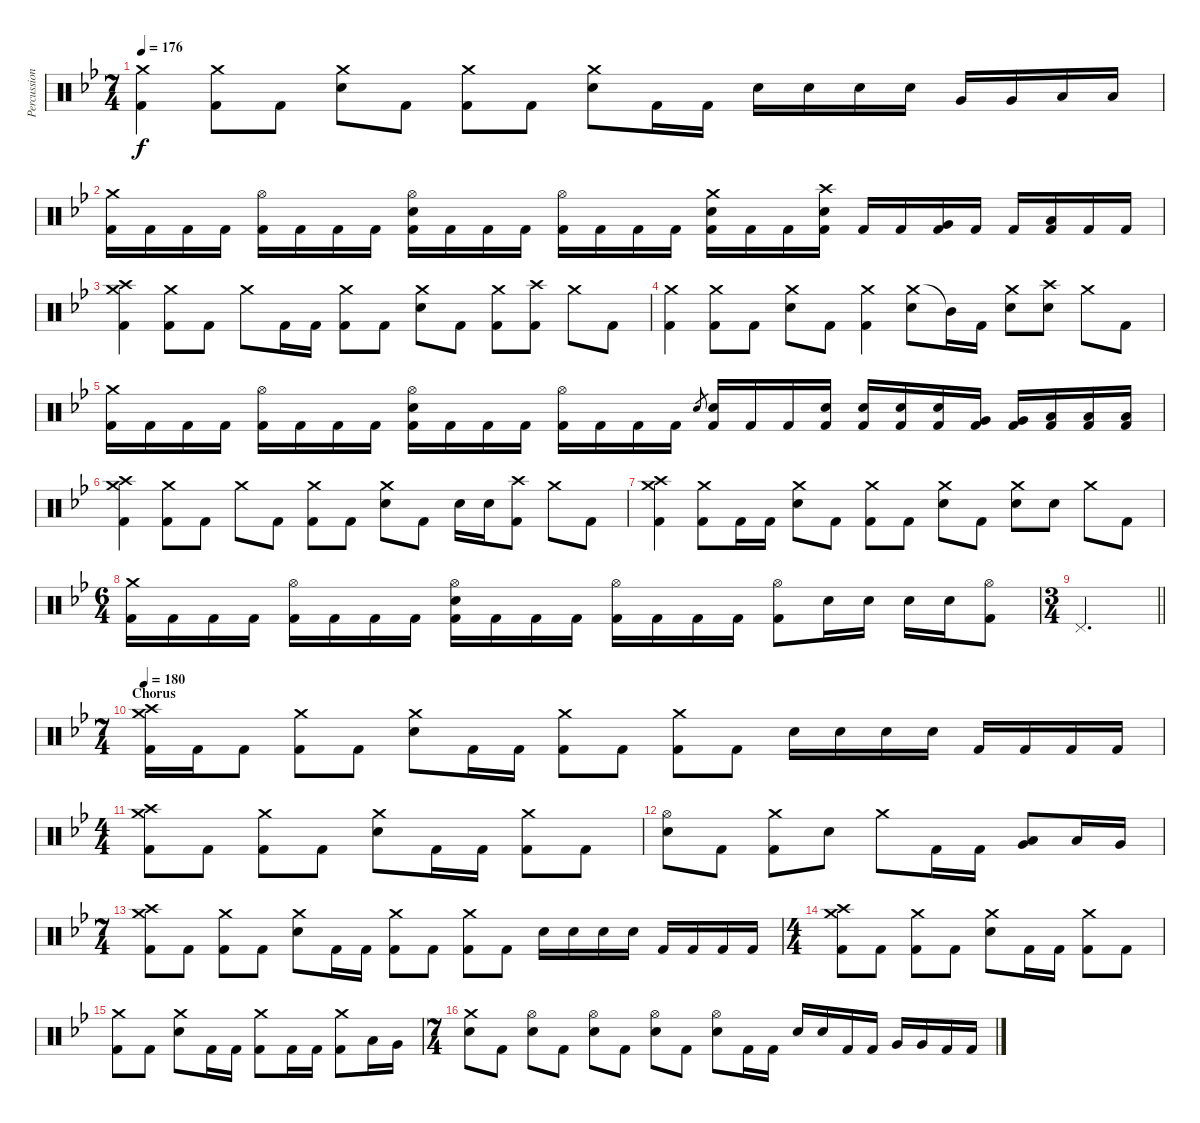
\track ("Percussion" "Percussion") {instrument percussion}
\staff {score}
\articulation defaults
\ts (7 4)
\tempo 176
\clef neutral
\ks bb
("Crash medium (hit)" "Kick (hit) 2").4{dy f} ("Crash medium (hit)" "Kick (hit) 2").8 "Kick (hit) 2".8 ("Crash medium (hit)" "Electric Snare (hit)").8 "Kick (hit) 2".8 ("Crash medium (hit)" "Kick (hit) 2").8 "Kick (hit) 2".8 ("Crash medium (hit)" "Electric Snare (hit)").8 "Kick (hit) 2".16 "Kick (hit) 2".16 "Electric Snare (hit)".16 "Electric Snare (hit)".16 "Electric Snare (hit)".16 "Electric Snare (hit)".16 "Very Low Tom (hit)".16 "Very Low Tom (hit)".16 "Low Floor Tom (hit)".16 "Low Floor Tom (hit)".16 |
("Crash medium (hit)" "Kick (hit) 2").16 "Kick (hit) 2".16 "Kick (hit) 2".16 "Kick (hit) 2".16 ("Hi-Hat (open)" "Kick (hit) 2").16 "Kick (hit) 2".16 "Kick (hit) 2".16 "Kick (hit) 2".16 ("Hi-Hat (open)" "Electric Snare (hit)" "Kick (hit) 2").16 "Kick (hit) 2".16 "Kick (hit) 2".16 "Kick (hit) 2".16 ("Hi-Hat (open)" "Kick (hit) 2").16 "Kick (hit) 2".16 "Kick (hit) 2".16 "Kick (hit) 2".16 ("Crash medium (hit)" "Electric Snare (hit)" "Kick (hit) 2").16 "Kick (hit) 2".16 "Kick (hit) 2".16 ("Crash high (hit)" "Electric Snare (hit)" "Kick (hit) 2").16 "Kick (hit) 2".16 "Kick (hit) 2".16 ("Very Low Tom (hit)" "Kick (hit) 2").16 "Kick (hit) 2".16 "Kick (hit) 2".16 ("Low Floor Tom (hit)" "Kick (hit) 2").16 "Kick (hit) 2".16 "Kick (hit) 2".16 |
("Crash medium (hit)" "Crash high (hit)" "Kick (hit) 2").4 ("Crash medium (hit)" "Kick (hit) 2").8 "Kick (hit) 2".8 "Crash medium (hit)".8 "Kick (hit) 2".16 "Kick (hit) 2".16 ("Crash medium (hit)" "Kick (hit) 2").8 "Kick (hit) 2".8 ("Crash medium (hit)" "Electric Snare (hit)").8 "Kick (hit) 2".8 ("Crash medium (hit)" "Kick (hit) 2").8 ("Crash high (hit)" "Kick (hit) 2").8 "Crash medium (hit)".8 "Kick (hit) 2".8 |
("Crash medium (hit)" "Kick (hit) 2").4 ("Crash medium (hit)" "Kick (hit) 2").8 "Kick (hit) 2".8 ("Crash medium (hit)" "Electric Snare (hit)").8 "Kick (hit) 2".8 ("Crash medium (hit)" "Kick (hit) 2").4 ("Crash medium (hit)" "Electric Snare (hit)").8 "Mid Tom (hit)"{t}.16 "Kick (hit) 2".16 ("Crash medium (hit)" "Electric Snare (hit)").8 ("Crash high (hit)" "Electric Snare (hit)").8 "Crash medium (hit)".8 "Kick (hit) 2".8 |
("Crash medium (hit)" "Kick (hit) 2").16 "Kick (hit) 2".16 "Kick (hit) 2".16 "Kick (hit) 2".16 ("Hi-Hat (open)" "Kick (hit) 2").16 "Kick (hit) 2".16 "Kick (hit) 2".16 "Kick (hit) 2".16 ("Hi-Hat (open)" "Electric Snare (hit)" "Kick (hit) 2").16 "Kick (hit) 2".16 "Kick (hit) 2".16 "Kick (hit) 2".16 ("Hi-Hat (open)" "Kick (hit) 2").16 "Kick (hit) 2".16 "Kick (hit) 2".16 "Kick (hit) 2".16 "Electric Snare (hit)".8{gr} ("Electric Snare (hit)" "Kick (hit) 2").16 "Kick (hit) 2".16 "Kick (hit) 2".16 ("Electric Snare (hit)" "Kick (hit) 2").16 ("Electric Snare (hit)" "Kick (hit) 2").16 ("Electric Snare (hit)" "Kick (hit) 2").16 ("Electric Snare (hit)" "Kick (hit) 2").16 ("Very Low Tom (hit)" "Kick (hit) 2").16 ("Very Low Tom (hit)" "Kick (hit) 2").16 ("Low Floor Tom (hit)" "Kick (hit) 2").16 ("Low Floor Tom (hit)" "Kick (hit) 2").16 ("Low Floor Tom (hit)" "Kick (hit) 2").16 |
("Crash medium (hit)" "Crash high (hit)" "Kick (hit) 2").4 ("Crash medium (hit)" "Kick (hit) 2").8 "Kick (hit) 2".8 "Crash medium (hit)".8 "Kick (hit) 2".8 ("Crash medium (hit)" "Kick (hit) 2").8 "Kick (hit) 2".8 ("Crash medium (hit)" "Electric Snare (hit)").8 "Kick (hit) 2".8 "Electric Snare (hit)".16 "Electric Snare (hit)".16 ("Crash high (hit)" "Kick (hit) 2").8 "Crash medium (hit)".8 "Kick (hit) 2".8 |
("Crash medium (hit)" "Crash high (hit)" "Kick (hit) 2").4 ("Crash medium (hit)" "Kick (hit) 2").8 "Kick (hit) 2".16 "Kick (hit) 2".16 ("Crash medium (hit)" "Electric Snare (hit)").8 "Kick (hit) 2".8 ("Crash medium (hit)" "Kick (hit) 2").8 "Kick (hit) 2".8 ("Crash medium (hit)" "Electric Snare (hit)").8 "Kick (hit) 2".8 ("Crash medium (hit)" "Electric Snare (hit)").8 "Electric Snare (hit)".8 "Crash medium (hit)".8 "Kick (hit) 2".8 |
\ts (6 4)
("Crash medium (hit)" "Kick (hit) 2").16 "Kick (hit) 2".16 "Kick (hit) 2".16 "Kick (hit) 2".16 ("Hi-Hat (open)" "Kick (hit) 2").16 "Kick (hit) 2".16 "Kick (hit) 2".16 "Kick (hit) 2".16 ("Hi-Hat (open)" "Electric Snare (hit)" "Kick (hit) 2").16 "Kick (hit) 2".16 "Kick (hit) 2".16 "Kick (hit) 2".16 ("Hi-Hat (open)" "Kick (hit) 2").16 "Kick (hit) 2".16 "Kick (hit) 2".16 "Kick (hit) 2".16 ("Hi-Hat (open)" "Kick (hit) 2").8 "Electric Snare (hit)".16 "Electric Snare (hit)".16 "Electric Snare (hit)".16 "Electric Snare (hit)".16 ("Hi-Hat (open)" "Kick (hit) 2").8 |
\ts (3 4)
\barLineRight lightlight "Pedal Hi-Hat (hit)".2{d}
|
\ts (7 4)
\section ("" "Chorus")
\tempo 180
("Crash medium (hit)" "Crash high (hit)" "Kick (hit) 2").16 "Kick (hit) 2".16 "Kick (hit) 2".8 ("Crash medium (hit)" "Kick (hit) 2").8 "Kick (hit) 2".8 ("Crash medium (hit)" "Electric Snare (hit)").8 "Kick (hit) 2".16 "Kick (hit) 2".16 ("Crash medium (hit)" "Kick (hit) 2").8 "Kick (hit) 2".8 ("Crash medium (hit)" "Kick (hit) 2").8 "Kick (hit) 2".8 "Electric Snare (hit)".16 "Electric Snare (hit)".16 "Electric Snare (hit)".16 "Electric Snare (hit)".16 "Kick (hit) 2".16 "Kick (hit) 2".16 "Kick (hit) 2".16 "Kick (hit) 2".16 |
\ts (4 4)
("Crash medium (hit)" "Crash high (hit)" "Kick (hit) 2").8 "Kick (hit) 2".8 ("Crash medium (hit)" "Kick (hit) 2").8 "Kick (hit) 2".8 ("Crash medium (hit)" "Electric Snare (hit)").8 "Kick (hit) 2".16 "Kick (hit) 2".16 ("Crash medium (hit)" "Kick (hit) 2").8 "Kick (hit) 2".8 |
("Hi-Hat (open)" "Electric Snare (hit)").8 "Kick (hit) 2".8 ("Crash medium (hit)" "Kick (hit) 2").8 "Electric Snare (hit)".8 "Crash medium (hit)".8 "Kick (hit) 2".16 "Kick (hit) 2".16 ("Very Low Tom (hit)" "Low Floor Tom (hit)").8 "Low Tom (hit)".16 "Very Low Tom (hit)".16 |
\ts (7 4)
("Crash medium (hit)" "Crash high (hit)" "Kick (hit) 2").8 "Kick (hit) 2".8 ("Crash medium (hit)" "Kick (hit) 2").8 "Kick (hit) 2".8 ("Crash medium (hit)" "Electric Snare (hit)").8 "Kick (hit) 2".16 "Kick (hit) 2".16 ("Crash medium (hit)" "Kick (hit) 2").8 "Kick (hit) 2".8 ("Crash medium (hit)" "Kick (hit) 2").8 "Kick (hit) 2".8 "Electric Snare (hit)".16 "Electric Snare (hit)".16 "Electric Snare (hit)".16 "Electric Snare (hit)".16 "Kick (hit) 2".16 "Kick (hit) 2".16 "Kick (hit) 2".16 "Kick (hit) 2".16 |
\ts (4 4)
("Crash medium (hit)" "Crash high (hit)" "Kick (hit) 2").8 "Kick (hit) 2".8 ("Crash medium (hit)" "Kick (hit) 2").8 "Kick (hit) 2".8 ("Crash medium (hit)" "Electric Snare (hit)").8 "Kick (hit) 2".16 "Kick (hit) 2".16 ("Crash medium (hit)" "Kick (hit) 2").8 "Kick (hit) 2".8 |
("Crash medium (hit)" "Kick (hit) 2").8 "Kick (hit) 2".8 ("Crash medium (hit)" "Electric Snare (hit)").8 "Kick (hit) 2".16 "Kick (hit) 2".16 ("Crash medium (hit)" "Kick (hit) 2").8 "Kick (hit) 2".16 "Kick (hit) 2".16 ("Crash medium (hit)" "Kick (hit) 2").8 "Low Tom (hit)".16 "Very Low Tom (hit)".16 |
\ts (7 4)
("Crash medium (hit)" "Electric Snare (hit)").8 "Kick (hit) 2".8 ("Hi-Hat (open)" "Electric Snare (hit)").8 "Kick (hit) 2".8 ("Hi-Hat (open)" "Electric Snare (hit)").8 "Kick (hit) 2".8 ("Hi-Hat (open)" "Electric Snare (hit)").8 "Kick (hit) 2".8 ("Hi-Hat (open)" "Electric Snare (hit)").8 "Kick (hit) 2".16 "Kick (hit) 2".16 "Electric Snare (hit)".16 "Electric Snare (hit)".16 "Kick (hit) 2".16 "Kick (hit) 2".16 "Very Low Tom (hit)".16 "Very Low Tom (hit)".16 "Kick (hit) 2".16 "Kick (hit) 2".16
